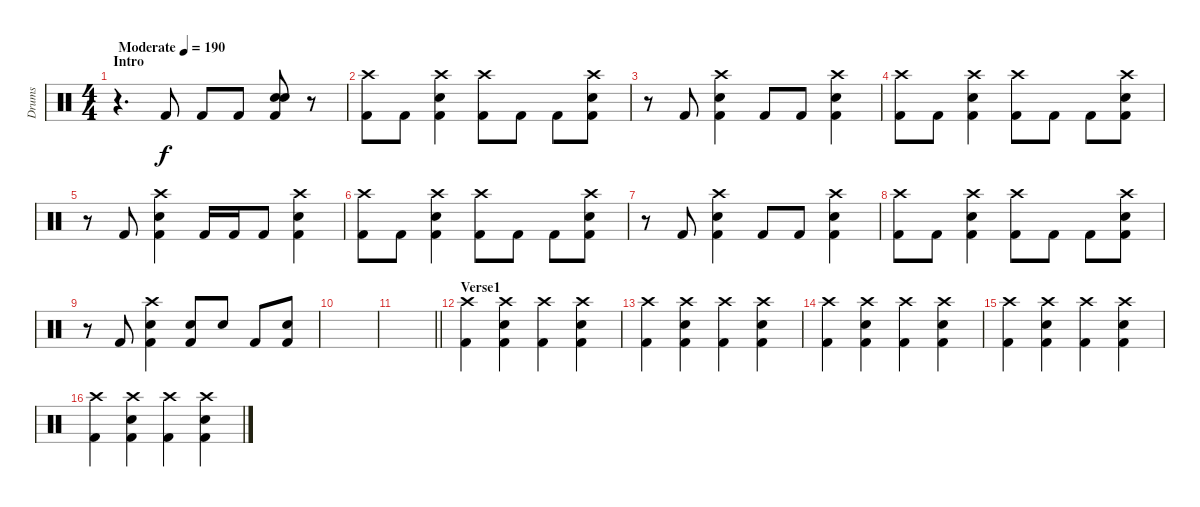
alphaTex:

\track ("Drums" "Drums") {instrument percussion}
\staff {score}
\articulation defaults
\ts (4 4)
\section ("" "Intro")
\tempo (190 "Moderate")
\clef neutral
\ks c
r.4{d dy f} "Kick (hit) 2".8 "Kick (hit) 2".8 "Kick (hit) 2".8 ("Snare (hit) 2" "Snare (hit) 2" "Kick (hit) 2").8 r.8 |
("Crash high (hit)" "Kick (hit) 2").8 "Kick (hit) 2".8 ("Crash high (hit)" "Snare (hit) 2" "Kick (hit) 2").4 ("Crash high (hit)" "Kick (hit) 2").8 "Kick (hit) 2".8 "Kick (hit) 2".8 ("Crash high (hit)" "Snare (hit) 2" "Kick (hit) 2").8 |
r.8 "Kick (hit) 2".8 ("Crash high (hit)" "Snare (hit) 2" "Kick (hit) 2").4 "Kick (hit) 2".8 "Kick (hit) 2".8 ("Crash high (hit)" "Snare (hit) 2" "Kick (hit) 2").4 |
("Crash high (hit)" "Kick (hit) 2").8 "Kick (hit) 2".8 ("Crash high (hit)" "Snare (hit) 2" "Kick (hit) 2").4 ("Crash high (hit)" "Kick (hit) 2").8 "Kick (hit) 2".8 "Kick (hit) 2".8 ("Crash high (hit)" "Snare (hit) 2" "Kick (hit) 2").8 |
r.8 "Kick (hit) 2".8 ("Crash high (hit)" "Snare (hit) 2" "Kick (hit) 2").4 "Kick (hit) 2".16 "Kick (hit) 2".16 "Kick (hit) 2".8 ("Crash high (hit)" "Snare (hit) 2" "Kick (hit) 2").4 |
("Crash high (hit)" "Kick (hit) 2").8 "Kick (hit) 2".8 ("Crash high (hit)" "Snare (hit) 2" "Kick (hit) 2").4 ("Crash high (hit)" "Kick (hit) 2").8 "Kick (hit) 2".8 "Kick (hit) 2".8 ("Crash high (hit)" "Snare (hit) 2" "Kick (hit) 2").8 |
r.8 "Kick (hit) 2".8 ("Crash high (hit)" "Snare (hit) 2" "Kick (hit) 2").4 "Kick (hit) 2".8 "Kick (hit) 2".8 ("Crash high (hit)" "Snare (hit) 2" "Kick (hit) 2").4 |
("Crash high (hit)" "Kick (hit) 2").8 "Kick (hit) 2".8 ("Crash high (hit)" "Snare (hit) 2" "Kick (hit) 2").4 ("Crash high (hit)" "Kick (hit) 2").8 "Kick (hit) 2".8 "Kick (hit) 2".8 ("Crash high (hit)" "Snare (hit) 2" "Kick (hit) 2").8 |
r.8 "Kick (hit) 2".8 ("Crash high (hit)" "Snare (hit) 2" "Kick (hit) 2").4 ("Snare (hit) 2" "Kick (hit) 2").8 "Snare (hit) 2".8 "Kick (hit) 2".8 ("Snare (hit) 2" "Kick (hit) 2").8 |
|
\barLineRight lightlight
|
\section ("" "Verse1")
("Crash high (hit)" "Kick (hit) 2").4 ("Crash high (hit)" "Snare (hit) 2" "Kick (hit) 2").4 ("Crash high (hit)" "Kick (hit) 2").4 ("Crash high (hit)" "Snare (hit) 2" "Kick (hit) 2").4 |
("Crash high (hit)" "Kick (hit) 2").4 ("Crash high (hit)" "Snare (hit) 2" "Kick (hit) 2").4 ("Crash high (hit)" "Kick (hit) 2").4 ("Crash high (hit)" "Snare (hit) 2" "Kick (hit) 2").4 |
("Crash high (hit)" "Kick (hit) 2").4 ("Crash high (hit)" "Snare (hit) 2" "Kick (hit) 2").4 ("Crash high (hit)" "Kick (hit) 2").4 ("Crash high (hit)" "Snare (hit) 2" "Kick (hit) 2").4 |
("Crash high (hit)" "Kick (hit) 2").4 ("Crash high (hit)" "Snare (hit) 2" "Kick (hit) 2").4 ("Crash high (hit)" "Kick (hit) 2").4 ("Crash high (hit)" "Snare (hit) 2" "Kick (hit) 2").4 |
("Crash high (hit)" "Kick (hit) 2").4 ("Crash high (hit)" "Snare (hit) 2" "Kick (hit) 2").4 ("Crash high (hit)" "Kick (hit) 2").4 ("Crash high (hit)" "Snare (hit) 2" "Kick (hit) 2").4
